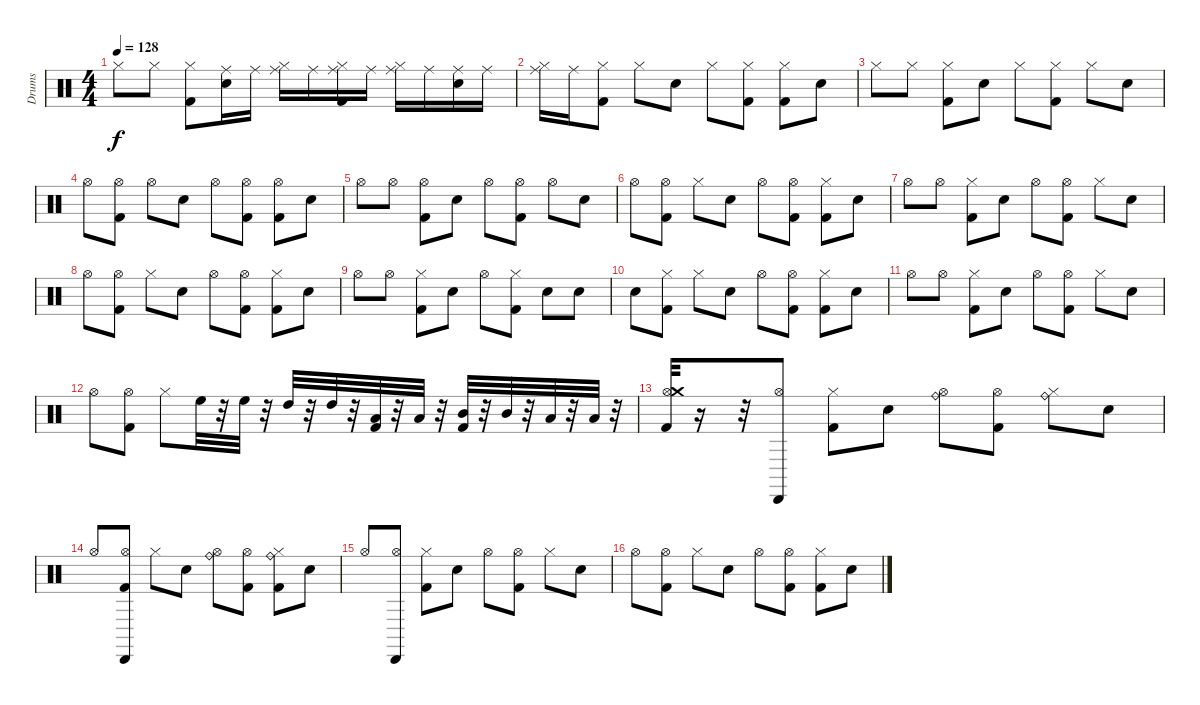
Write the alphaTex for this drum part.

\track ("Drums" "Drums") {instrument percussion}
\staff {score}
\articulation defaults
\ts (4 4)
\tempo 128
\clef neutral
\ks c "Hi-Hat (closed)".8{dy f} "Hi-Hat (closed)".8
("Hi-Hat (closed)" "Kick (hit) 2").8 ("Ride (middle)" "Snare (hit) 2").16 "Ride (middle)".16 ("Hi-Hat (closed)" "Ride (middle)").16 "Ride (middle)".16 ("Hi-Hat (closed)" "Ride (middle)" "Kick (hit) 2").16 "Ride (middle)".16 ("Hi-Hat (closed)" "Ride (middle)").16 "Ride (middle)".16 ("Ride (middle)" "Snare (hit) 2").16 "Ride (middle)".16 |
("Hi-Hat (closed)" "Ride (middle)").16 "Ride (middle)".16 ("Hi-Hat (closed)" "Kick (hit) 2").8 "Hi-Hat (closed)".8 "Snare (hit) 2".8 "Hi-Hat (closed)".8 ("Hi-Hat (closed)" "Kick (hit) 2").8 ("Hi-Hat (closed)" "Kick (hit) 2").8 "Snare (hit) 2".8 |
"Hi-Hat (closed)".8 "Hi-Hat (closed)".8 ("Hi-Hat (closed)" "Kick (hit) 2").8 "Snare (hit) 2".8 "Hi-Hat (closed)".8 ("Hi-Hat (closed)" "Kick (hit) 2").8 "Hi-Hat (closed)".8 "Snare (hit) 2".8 |
"Hi-Hat (open)".8 ("Hi-Hat (open)" "Kick (hit) 2").8 "Hi-Hat (open)".8 "Snare (hit) 2".8 "Hi-Hat (open)".8 ("Hi-Hat (open)" "Kick (hit) 2").8 ("Hi-Hat (open)" "Kick (hit) 2").8 "Snare (hit) 2".8 |
"Hi-Hat (open)".8 "Hi-Hat (open)".8 ("Hi-Hat (open)" "Kick (hit) 2").8 "Snare (hit) 2".8 "Hi-Hat (open)".8 ("Hi-Hat (open)" "Kick (hit) 2").8 "Hi-Hat (open)".8 "Snare (hit) 2".8 |
"Hi-Hat (open)".8 ("Hi-Hat (open)" "Kick (hit) 2").8 "Hi-Hat (closed)".8 "Snare (hit) 2".8 "Hi-Hat (open)".8 ("Hi-Hat (open)" "Kick (hit) 2").8 ("Hi-Hat (closed)" "Kick (hit) 2").8 "Snare (hit) 2".8 |
"Hi-Hat (open)".8 "Hi-Hat (open)".8 ("Hi-Hat (closed)" "Kick (hit) 2").8 "Snare (hit) 2".8 "Hi-Hat (open)".8 ("Hi-Hat (open)" "Kick (hit) 2").8 "Hi-Hat (closed)".8 "Snare (hit) 2".8 |
"Hi-Hat (open)".8 ("Hi-Hat (open)" "Kick (hit) 2").8 "Hi-Hat (closed)".8 "Snare (hit) 2".8 "Hi-Hat (open)".8 ("Hi-Hat (open)" "Kick (hit) 2").8 ("Hi-Hat (closed)" "Kick (hit) 2").8 "Snare (hit) 2".8 |
"Hi-Hat (open)".8 "Hi-Hat (open)".8 ("Hi-Hat (closed)" "Kick (hit) 2").8 "Snare (hit) 2".8 "Hi-Hat (open)".8 ("Hi-Hat (closed)" "Kick (hit) 2").8 "Snare (hit) 2".8 "Snare (hit) 2".8 |
"Snare (hit) 2".8 ("Hi-Hat (closed)" "Kick (hit) 2").8 "Hi-Hat (closed)".8 "Snare (hit) 2".8 "Hi-Hat (open)".8 ("Hi-Hat (open)" "Kick (hit) 2").8 ("Hi-Hat (closed)" "Kick (hit) 2").8 "Snare (hit) 2".8 |
"Hi-Hat (open)".8 "Hi-Hat (open)".8 ("Hi-Hat (closed)" "Kick (hit) 2").8 "Snare (hit) 2".8 "Hi-Hat (open)".8 ("Hi-Hat (open)" "Kick (hit) 2").8 "Hi-Hat (closed)".8 "Snare (hit) 2".8 |
"Hi-Hat (open)".8 ("Hi-Hat (open)" "Kick (hit) 2").8 "Hi-Hat (closed)".8 "High Floor Tom (hit)".32 r.32 "High Floor Tom (hit)".32 r.32 "High Tom (hit)".32 r.32 "High Tom (hit)".32 r.32 ("Low Tom (hit)" "Kick (hit) 2").32 r.32 "Low Tom (hit)".32 r.32 ("Mid Tom (hit)" "Kick (hit) 2").32 r.32 "Mid Tom (hit)".32 r.32 "Low Tom (hit)".32 r.32 "Low Tom (hit)".32 r.32 |
("Hi-Hat (open)" "Crash medium (hit)" "Kick (hit) 2").32 r.16 r.32 ("Hi-Hat (open)" "Cabasa (hit)").8 ("Hi-Hat (closed)" "Kick (hit) 2").8 "Snare (hit) 2".8 ("Hi-Hat (open)" "Ride (bell)").8 ("Hi-Hat (open)" "Kick (hit) 2").8 ("Hi-Hat (closed)" "Ride (bell)").8 "Snare (hit) 2".8 |
"Hi-Hat (open)".8 ("Hi-Hat (open)" "Cabasa (hit)" "Kick (hit) 2").8 "Hi-Hat (closed)".8 "Snare (hit) 2".8 ("Hi-Hat (open)" "Ride (bell)").8 ("Hi-Hat (open)" "Kick (hit) 2").8 ("Hi-Hat (closed)" "Ride (bell)" "Kick (hit) 2").8 "Snare (hit) 2".8 |
"Hi-Hat (open)".8 ("Hi-Hat (open)" "Cabasa (hit)").8 ("Hi-Hat (closed)" "Kick (hit) 2").8 "Snare (hit) 2".8 "Hi-Hat (open)".8 ("Hi-Hat (open)" "Kick (hit) 2").8 "Hi-Hat (closed)".8 "Snare (hit) 2".8 |
"Hi-Hat (open)".8 ("Hi-Hat (open)" "Kick (hit) 2").8 "Hi-Hat (closed)".8 "Snare (hit) 2".8 "Hi-Hat (open)".8 ("Hi-Hat (open)" "Kick (hit) 2").8 ("Hi-Hat (closed)" "Kick (hit) 2").8 "Snare (hit) 2".8
